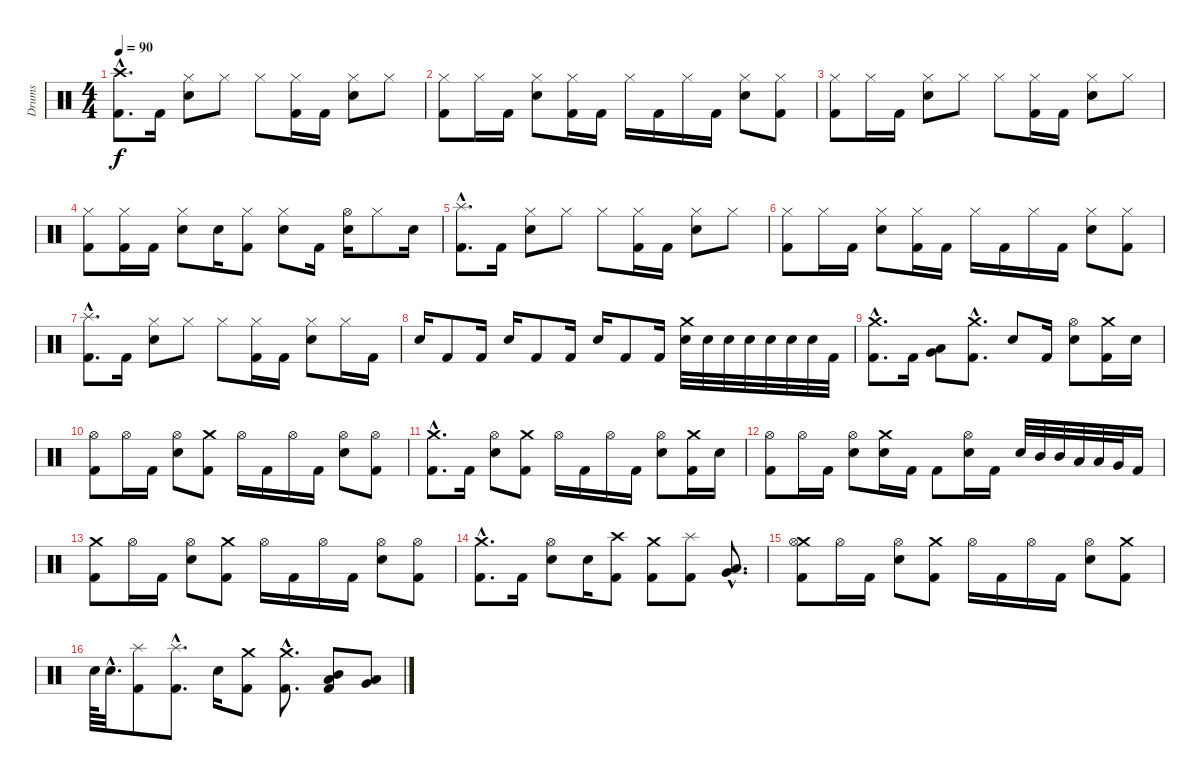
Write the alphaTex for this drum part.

\track ("Drums" "Drums") {instrument percussion}
\staff {score}
\articulation defaults
\ts (4 4)
\tempo 90
\clef neutral
\ks c
("Crash high (hit)"{hac} "Kick (hit) 2"{hac}).8{d dy f} "Kick (hit) 2".16 ("Hi-Hat (closed)" "Snare (hit) 2").8 "Hi-Hat (closed)".8 "Hi-Hat (closed)".8 ("Hi-Hat (closed)" "Kick (hit) 2").16 "Kick (hit) 2".16 ("Hi-Hat (closed)" "Snare (hit) 2").8 "Hi-Hat (closed)".8 |
("Hi-Hat (closed)" "Kick (hit) 2").8 "Hi-Hat (closed)".16 "Kick (hit) 2".16 ("Hi-Hat (closed)" "Snare (hit) 2").8 ("Hi-Hat (closed)" "Kick (hit) 2").16 "Kick (hit) 2".16 "Hi-Hat (closed)".16 "Kick (hit) 2".16 "Hi-Hat (closed)".16 "Kick (hit) 2".16 ("Hi-Hat (closed)" "Snare (hit) 2").8 ("Hi-Hat (closed)" "Kick (hit) 2").8 |
("Hi-Hat (closed)" "Kick (hit) 2").8 "Hi-Hat (closed)".16 "Kick (hit) 2".16 ("Hi-Hat (closed)" "Snare (hit) 2").8 "Hi-Hat (closed)".8 "Hi-Hat (closed)".8 ("Hi-Hat (closed)" "Kick (hit) 2").16 "Kick (hit) 2".16 ("Hi-Hat (closed)" "Snare (hit) 2").8 "Hi-Hat (closed)".8 |
("Hi-Hat (closed)" "Kick (hit) 2").8 ("Hi-Hat (closed)" "Kick (hit) 2").16 "Kick (hit) 2".16 ("Hi-Hat (closed)" "Snare (hit) 2").8 "Snare (hit) 2".16 ("Hi-Hat (closed)" "Kick (hit) 2").8 ("Hi-Hat (closed)" "Snare (hit) 2").8 "Kick (hit) 2".16 ("Hi-Hat (open)" "Snare (hit) 2").16 "Hi-Hat (closed)".8 "Snare (hit) 2".16 |
("Splash (hit)"{hac} "Kick (hit) 2"{hac}).8{d} "Kick (hit) 2".16 ("Hi-Hat (closed)" "Snare (hit) 2").8 "Hi-Hat (closed)".8 "Hi-Hat (closed)".8 ("Hi-Hat (closed)" "Kick (hit) 2").16 "Kick (hit) 2".16 ("Hi-Hat (closed)" "Snare (hit) 2").8 "Hi-Hat (closed)".8 |
("Hi-Hat (closed)" "Kick (hit) 2").8 "Hi-Hat (closed)".16 "Kick (hit) 2".16 ("Hi-Hat (closed)" "Snare (hit) 2").8 ("Hi-Hat (closed)" "Kick (hit) 2").16 "Kick (hit) 2".16 "Hi-Hat (closed)".16 "Kick (hit) 2".16 "Hi-Hat (closed)".16 "Kick (hit) 2".16 ("Hi-Hat (closed)" "Snare (hit) 2").8 ("Hi-Hat (closed)" "Kick (hit) 2").8 |
("Splash (hit)"{hac} "Kick (hit) 2"{hac}).8{d} "Kick (hit) 2".16 ("Hi-Hat (closed)" "Snare (hit) 2").8 "Hi-Hat (closed)".8 "Hi-Hat (closed)".8 ("Hi-Hat (closed)" "Kick (hit) 2").16 "Kick (hit) 2".16 ("Hi-Hat (closed)" "Snare (hit) 2").8 "Hi-Hat (closed)".16 "Kick (hit) 2".16 |
"Snare (hit) 2".16 "Kick (hit) 2".8 "Kick (hit) 2".16 "Snare (hit) 2".16 "Kick (hit) 2".8 "Kick (hit) 2".16 "Snare (hit) 2".16 "Kick (hit) 2".8 "Kick (hit) 2".16 ("Crash medium (hit)" "Snare (hit) 2").32 "Snare (hit) 2".32 "Snare (hit) 2".32 "Snare (hit) 2".32 "Snare (hit) 2".32 "Snare (hit) 2".32 "Snare (hit) 2".32 "Kick (hit) 2".32 |
("Crash medium (hit)"{hac} "Kick (hit) 2"{hac}).8{d} "Kick (hit) 2".16 ("Very Low Tom (hit)" "Low Tom (hit)").8 ("Crash medium (hit)"{hac} "Kick (hit) 2"{hac}).8{d} "Snare (hit) 2".8 "Kick (hit) 2".16 ("Hi-Hat (open)" "Snare (hit) 2").8 ("Crash medium (hit)" "Kick (hit) 2").16 "Snare (hit) 2".16 |
("Hi-Hat (open)" "Kick (hit) 2").8 "Hi-Hat (open)".16 "Kick (hit) 2".16 ("Hi-Hat (open)" "Snare (hit) 2").8 ("Crash medium (hit)" "Kick (hit) 2").8 "Hi-Hat (open)".16 "Kick (hit) 2".16 "Hi-Hat (open)".16 "Kick (hit) 2".16 ("Hi-Hat (open)" "Snare (hit) 2").8 ("Hi-Hat (open)" "Kick (hit) 2").8 |
("Crash medium (hit)"{hac} "Kick (hit) 2"{hac}).8{d} "Kick (hit) 2".16 ("Hi-Hat (open)" "Snare (hit) 2").8 ("Crash medium (hit)" "Kick (hit) 2").8 "Hi-Hat (open)".16 "Kick (hit) 2".16 "Hi-Hat (open)".16 "Kick (hit) 2".16 ("Hi-Hat (open)" "Snare (hit) 2").8 ("Crash medium (hit)" "Kick (hit) 2").16 "Snare (hit) 2".16 |
("Hi-Hat (open)" "Kick (hit) 2").8 "Hi-Hat (open)".16 "Kick (hit) 2".16 ("Hi-Hat (open)" "Snare (hit) 2").8 ("Crash medium (hit)" "Snare (hit) 2").16 "Kick (hit) 2".16 "Kick (hit) 2".8 ("Hi-Hat (open)" "Snare (hit) 2").16 "Kick (hit) 2".16 "Snare (hit) 2".32 "Mid Tom (hit)".32 "Mid Tom (hit)".32 "Low Tom (hit)".32 "Low Tom (hit)".32 "Very Low Tom (hit)".32 "Kick (hit) 2".16 |
("Crash medium (hit)" "Kick (hit) 2").8 "Hi-Hat (open)".16 "Kick (hit) 2".16 ("Hi-Hat (open)" "Snare (hit) 2").8 ("Crash medium (hit)" "Kick (hit) 2").8 "Hi-Hat (open)".16 "Kick (hit) 2".16 "Hi-Hat (open)".16 "Kick (hit) 2".16 ("Hi-Hat (open)" "Snare (hit) 2").8 ("Hi-Hat (open)" "Kick (hit) 2").8 |
("Crash medium (hit)"{hac} "Kick (hit) 2"{hac}).8{d} "Kick (hit) 2".16 ("Hi-Hat (open)" "Snare (hit) 2").8 "Snare (hit) 2".16 ("Crash high (hit)" "Kick (hit) 2").8 ("Crash medium (hit)" "Kick (hit) 2").8 ("Splash (hit)" "Kick (hit) 2").8 ("Low Tom (hit)"{hac} "Very Low Tom (hit)"{hac}).8{d} |
("Crash medium (hit)" "Hi-Hat (open)" "Kick (hit) 2").8 "Hi-Hat (open)".16 "Kick (hit) 2".16 ("Hi-Hat (open)" "Snare (hit) 2").8 ("Crash medium (hit)" "Kick (hit) 2").8 "Hi-Hat (open)".16 "Kick (hit) 2".16 "Hi-Hat (open)".16 "Kick (hit) 2".16 ("Hi-Hat (open)" "Snare (hit) 2").8 ("Crash medium (hit)" "Kick (hit) 2").8 |
"Snare (hit) 2".64 "Snare (hit) 2"{hac}.32{d} ("Splash (hit)" "Kick (hit) 2").8 ("Splash (hit)"{hac} "Kick (hit) 2"{hac}).8{d} "Snare (hit) 2".16 ("Crash medium (hit)" "Kick (hit) 2").8 ("Crash medium (hit)"{hac} "Kick (hit) 2"{hac}).8{d} ("Mid Tom (hit)" "Low Tom (hit)" "Kick (hit) 2").8 ("Low Tom (hit)" "Very Low Tom (hit)").8
